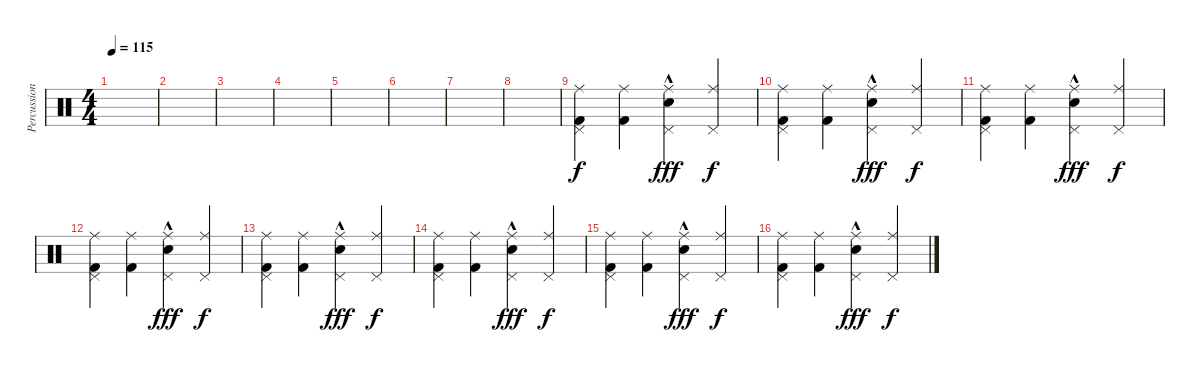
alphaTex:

\track ("Percussion" "Percussion") {instrument percussion}
\staff {score}
\articulation defaults
\ts (4 4)
\tempo 115
\clef neutral
\ks c
|
|
|
|
|
|
|
|
("Ride (middle)" "Pedal Hi-Hat (hit)" "Kick (hit) 2").4 ("Ride (middle)" "Kick (hit) 2").4 ("Ride (middle)" "Snare (hit) 2"{hac} "Pedal Hi-Hat (hit)").4{dy fff} ("Ride (middle)" "Pedal Hi-Hat (hit)").4{dy f} |
("Ride (middle)" "Pedal Hi-Hat (hit)" "Kick (hit) 2").4 ("Ride (middle)" "Kick (hit) 2").4 ("Ride (middle)" "Snare (hit) 2"{hac} "Pedal Hi-Hat (hit)").4{dy fff} ("Ride (middle)" "Pedal Hi-Hat (hit)").4{dy f} |
("Ride (middle)" "Pedal Hi-Hat (hit)" "Kick (hit) 2").4 ("Ride (middle)" "Kick (hit) 2").4 ("Ride (middle)" "Snare (hit) 2"{hac} "Pedal Hi-Hat (hit)").4{dy fff} ("Ride (middle)" "Pedal Hi-Hat (hit)").4{dy f} |
("Ride (middle)" "Pedal Hi-Hat (hit)" "Kick (hit) 2").4 ("Ride (middle)" "Kick (hit) 2").4 ("Ride (middle)" "Snare (hit) 2"{hac} "Pedal Hi-Hat (hit)").4{dy fff} ("Ride (middle)" "Pedal Hi-Hat (hit)").4{dy f} |
("Ride (middle)" "Pedal Hi-Hat (hit)" "Kick (hit) 2").4 ("Ride (middle)" "Kick (hit) 2").4 ("Ride (middle)" "Snare (hit) 2"{hac} "Pedal Hi-Hat (hit)").4{dy fff} ("Ride (middle)" "Pedal Hi-Hat (hit)").4{dy f} |
("Ride (middle)" "Pedal Hi-Hat (hit)" "Kick (hit) 2").4 ("Ride (middle)" "Kick (hit) 2").4 ("Ride (middle)" "Snare (hit) 2"{hac} "Pedal Hi-Hat (hit)").4{dy fff} ("Ride (middle)" "Pedal Hi-Hat (hit)").4{dy f} |
("Ride (middle)" "Pedal Hi-Hat (hit)" "Kick (hit) 2").4 ("Ride (middle)" "Kick (hit) 2").4 ("Ride (middle)" "Snare (hit) 2"{hac} "Pedal Hi-Hat (hit)").4{dy fff} ("Ride (middle)" "Pedal Hi-Hat (hit)").4{dy f} |
("Ride (middle)" "Pedal Hi-Hat (hit)" "Kick (hit) 2").4 ("Ride (middle)" "Kick (hit) 2").4 ("Ride (middle)" "Snare (hit) 2"{hac} "Pedal Hi-Hat (hit)").4{dy fff} ("Ride (middle)" "Pedal Hi-Hat (hit)").4{dy f}
